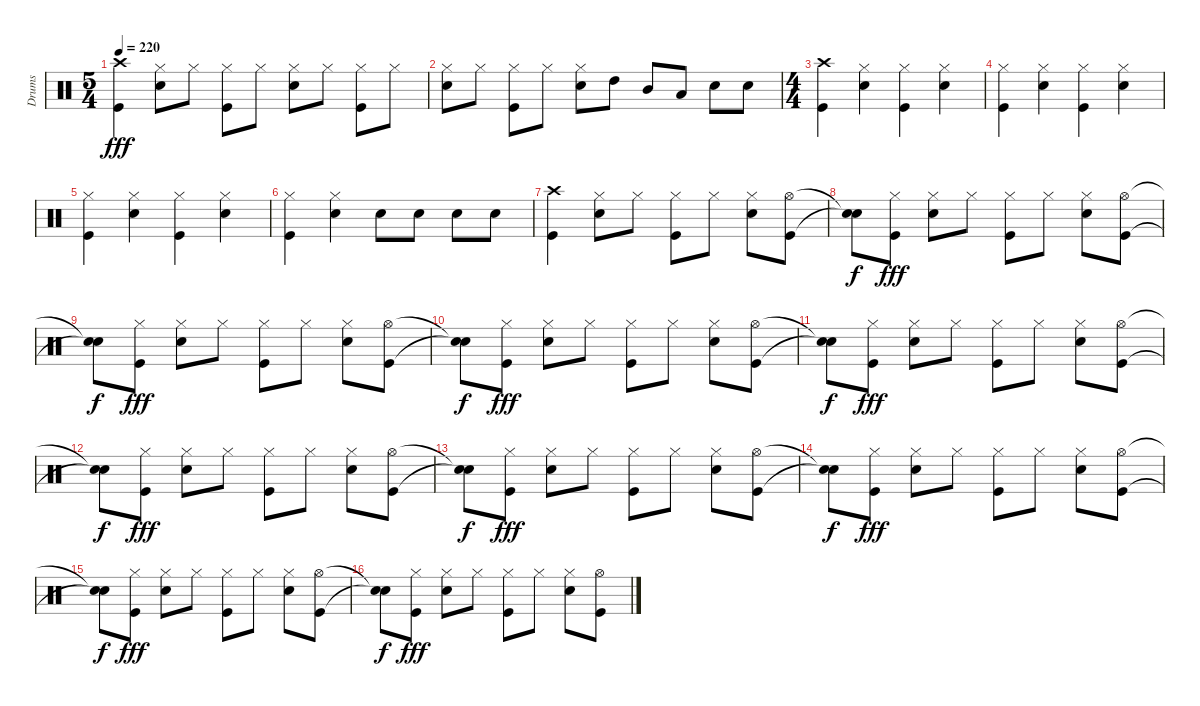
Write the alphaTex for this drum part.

\track ("Drums" "Drums") {instrument percussion}
\staff {score}
\articulation defaults
\ts (5 4)
\tempo 220
\clef neutral
\ks c
("Crash high (hit)" "Kick (hit)").4{dy fff} ("Hi-Hat (closed)" "Snare (hit) 2").8 "Hi-Hat (closed)".8 ("Hi-Hat (closed)" "Kick (hit)").8 "Hi-Hat (closed)".8 ("Hi-Hat (closed)" "Snare (hit) 2").8 "Hi-Hat (closed)".8 ("Hi-Hat (closed)" "Kick (hit)").8 "Hi-Hat (closed)".8 |
("Hi-Hat (closed)" "Snare (hit) 2").8 "Hi-Hat (closed)".8 ("Hi-Hat (closed)" "Kick (hit)").8 "Hi-Hat (closed)".8 ("Hi-Hat (closed)" "Snare (hit) 2").8 "High Tom (hit)".8 "Mid Tom (hit)".8 "Low Tom (hit)".8 "Snare (hit) 2".8 "Snare (hit) 2".8 |
\ts (4 4)
("Crash high (hit)" "Kick (hit)").4 ("Hi-Hat (closed)" "Snare (hit) 2").4 ("Hi-Hat (closed)" "Kick (hit)").4 ("Hi-Hat (closed)" "Snare (hit) 2").4 |
("Hi-Hat (closed)" "Kick (hit)").4 ("Hi-Hat (closed)" "Snare (hit) 2").4 ("Hi-Hat (closed)" "Kick (hit)").4 ("Hi-Hat (closed)" "Snare (hit) 2").4 |
("Hi-Hat (closed)" "Kick (hit)").4 ("Hi-Hat (closed)" "Snare (hit) 2").4 ("Hi-Hat (closed)" "Kick (hit)").4 ("Hi-Hat (closed)" "Snare (hit) 2").4 |
("Hi-Hat (closed)" "Kick (hit)").4 ("Hi-Hat (closed)" "Snare (hit) 2").4 "Snare (hit) 2".8 "Snare (hit) 2".8 "Snare (hit) 2".8 "Snare (hit) 2".8 |
("Crash high (hit)" "Kick (hit)").4 ("Hi-Hat (closed)" "Snare (hit) 2").8 "Hi-Hat (closed)".8 ("Hi-Hat (closed)" "Kick (hit)").8 "Hi-Hat (closed)".8 ("Hi-Hat (closed)" "Snare (hit) 2").8 ("Hi-Hat (open)" "Kick (hit)").8 |
("Snare (hit)"{t} "Snare (hit)"{t}).8{dy f} ("Hi-Hat (closed)" "Kick (hit)").8{dy fff} ("Hi-Hat (closed)" "Snare (hit) 2").8 "Hi-Hat (closed)".8 ("Hi-Hat (closed)" "Kick (hit)").8 "Hi-Hat (closed)".8 ("Hi-Hat (closed)" "Snare (hit) 2").8 ("Hi-Hat (open)" "Kick (hit)").8 |
("Snare (hit)"{t} "Snare (hit)"{t}).8{dy f} ("Hi-Hat (closed)" "Kick (hit)").8{dy fff} ("Hi-Hat (closed)" "Snare (hit) 2").8 "Hi-Hat (closed)".8 ("Hi-Hat (closed)" "Kick (hit)").8 "Hi-Hat (closed)".8 ("Hi-Hat (closed)" "Snare (hit) 2").8 ("Hi-Hat (open)" "Kick (hit)").8 |
("Snare (hit)"{t} "Snare (hit)"{t}).8{dy f} ("Hi-Hat (closed)" "Kick (hit)").8{dy fff} ("Hi-Hat (closed)" "Snare (hit) 2").8 "Hi-Hat (closed)".8 ("Hi-Hat (closed)" "Kick (hit)").8 "Hi-Hat (closed)".8 ("Hi-Hat (closed)" "Snare (hit) 2").8 ("Hi-Hat (open)" "Kick (hit)").8 |
("Snare (hit)"{t} "Snare (hit)"{t}).8{dy f} ("Hi-Hat (closed)" "Kick (hit)").8{dy fff} ("Hi-Hat (closed)" "Snare (hit) 2").8 "Hi-Hat (closed)".8 ("Hi-Hat (closed)" "Kick (hit)").8 "Hi-Hat (closed)".8 ("Hi-Hat (closed)" "Snare (hit) 2").8 ("Hi-Hat (open)" "Kick (hit)").8 |
("Snare (hit)"{t} "Snare (hit)"{t}).8{dy f} ("Hi-Hat (closed)" "Kick (hit)").8{dy fff} ("Hi-Hat (closed)" "Snare (hit) 2").8 "Hi-Hat (closed)".8 ("Hi-Hat (closed)" "Kick (hit)").8 "Hi-Hat (closed)".8 ("Hi-Hat (closed)" "Snare (hit) 2").8 ("Hi-Hat (open)" "Kick (hit)").8 |
("Snare (hit)"{t} "Snare (hit)"{t}).8{dy f} ("Hi-Hat (closed)" "Kick (hit)").8{dy fff} ("Hi-Hat (closed)" "Snare (hit) 2").8 "Hi-Hat (closed)".8 ("Hi-Hat (closed)" "Kick (hit)").8 "Hi-Hat (closed)".8 ("Hi-Hat (closed)" "Snare (hit) 2").8 ("Hi-Hat (open)" "Kick (hit)").8 |
("Snare (hit)"{t} "Snare (hit)"{t}).8{dy f} ("Hi-Hat (closed)" "Kick (hit)").8{dy fff} ("Hi-Hat (closed)" "Snare (hit) 2").8 "Hi-Hat (closed)".8 ("Hi-Hat (closed)" "Kick (hit)").8 "Hi-Hat (closed)".8 ("Hi-Hat (closed)" "Snare (hit) 2").8 ("Hi-Hat (open)" "Kick (hit)").8 |
("Snare (hit)"{t} "Snare (hit)"{t}).8{dy f} ("Hi-Hat (closed)" "Kick (hit)").8{dy fff} ("Hi-Hat (closed)" "Snare (hit) 2").8 "Hi-Hat (closed)".8 ("Hi-Hat (closed)" "Kick (hit)").8 "Hi-Hat (closed)".8 ("Hi-Hat (closed)" "Snare (hit) 2").8 ("Hi-Hat (open)" "Kick (hit)").8 |
("Snare (hit)"{t} "Snare (hit)"{t}).8{dy f} ("Hi-Hat (closed)" "Kick (hit)").8{dy fff} ("Hi-Hat (closed)" "Snare (hit) 2").8 "Hi-Hat (closed)".8 ("Hi-Hat (closed)" "Kick (hit)").8 "Hi-Hat (closed)".8 ("Hi-Hat (closed)" "Snare (hit) 2").8 ("Hi-Hat (open)" "Kick (hit)").8
